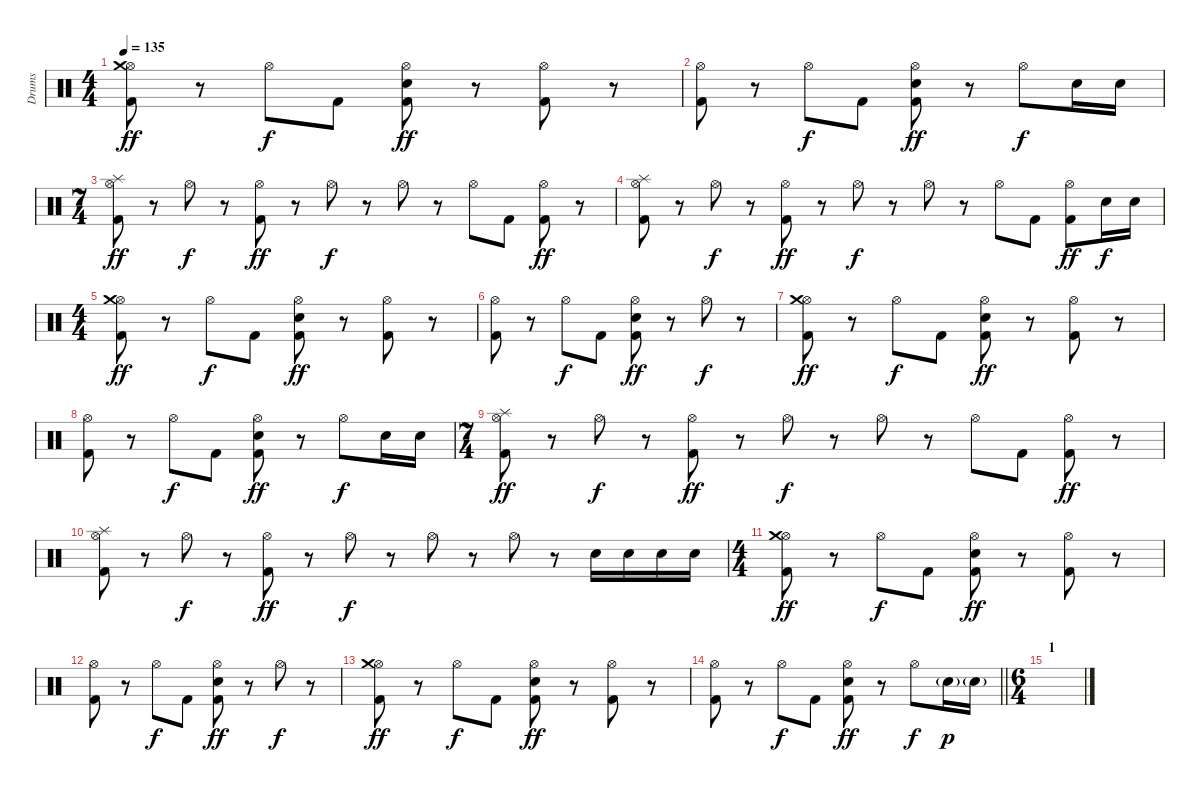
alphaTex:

\track ("Drums" "Drums") {instrument percussion}
\staff {score}
\articulation defaults
\ts (4 4)
\tempo 135
\clef neutral
\ks c
("Hi-Hat (open)" "Crash medium (hit)" "Kick (hit) 2").8{dy ff} r.8 "Hi-Hat (open)".8{dy f} "Kick (hit) 2".8 ("Hi-Hat (open)" "Snare (hit) 2" "Kick (hit) 2").8{dy ff} r.8 ("Hi-Hat (open)" "Kick (hit) 2").8 r.8 |
("Hi-Hat (open)" "Kick (hit) 2").8 r.8 "Hi-Hat (open)".8{dy f} "Kick (hit) 2".8 ("Hi-Hat (open)" "Snare (hit) 2" "Kick (hit) 2").8{dy ff} r.8 "Hi-Hat (open)".8{dy f} "Snare (hit) 2".16 "Snare (hit) 2".16 |
\ts (7 4)
("Hi-Hat (open)" "Splash (hit)" "Kick (hit) 2").8{dy ff} r.8 "Hi-Hat (open)".8{dy f} r.8 ("Hi-Hat (open)" "Kick (hit) 2").8{dy ff} r.8 "Hi-Hat (open)".8{dy f} r.8 "Hi-Hat (open)".8 r.8 "Hi-Hat (open)".8 "Kick (hit) 2".8 ("Hi-Hat (open)" "Kick (hit) 2").8{dy ff} r.8 |
("Hi-Hat (open)" "Splash (hit)" "Kick (hit) 2").8 r.8 "Hi-Hat (open)".8{dy f} r.8 ("Hi-Hat (open)" "Kick (hit) 2").8{dy ff} r.8 "Hi-Hat (open)".8{dy f} r.8 "Hi-Hat (open)".8 r.8 "Hi-Hat (open)".8 "Kick (hit) 2".8 ("Hi-Hat (open)" "Kick (hit) 2").8{dy ff} "Snare (hit) 2".16{dy f} "Snare (hit) 2".16 |
\ts (4 4)
("Hi-Hat (open)" "Crash medium (hit)" "Kick (hit) 2").8{dy ff} r.8 "Hi-Hat (open)".8{dy f} "Kick (hit) 2".8 ("Hi-Hat (open)" "Snare (hit) 2" "Kick (hit) 2").8{dy ff} r.8 ("Hi-Hat (open)" "Kick (hit) 2").8 r.8 |
("Hi-Hat (open)" "Kick (hit) 2").8 r.8 "Hi-Hat (open)".8{dy f} "Kick (hit) 2".8 ("Hi-Hat (open)" "Snare (hit) 2" "Kick (hit) 2").8{dy ff} r.8 "Hi-Hat (open)".8{dy f} r.8 |
("Hi-Hat (open)" "Crash medium (hit)" "Kick (hit) 2").8{dy ff} r.8 "Hi-Hat (open)".8{dy f} "Kick (hit) 2".8 ("Hi-Hat (open)" "Snare (hit) 2" "Kick (hit) 2").8{dy ff} r.8 ("Hi-Hat (open)" "Kick (hit) 2").8 r.8 |
("Hi-Hat (open)" "Kick (hit) 2").8 r.8 "Hi-Hat (open)".8{dy f} "Kick (hit) 2".8 ("Hi-Hat (open)" "Snare (hit) 2" "Kick (hit) 2").8{dy ff} r.8 "Hi-Hat (open)".8{dy f} "Snare (hit) 2".16 "Snare (hit) 2".16 |
\ts (7 4)
("Hi-Hat (open)" "Splash (hit)" "Kick (hit) 2").8{dy ff} r.8 "Hi-Hat (open)".8{dy f} r.8 ("Hi-Hat (open)" "Kick (hit) 2").8{dy ff} r.8 "Hi-Hat (open)".8{dy f} r.8 "Hi-Hat (open)".8 r.8 "Hi-Hat (open)".8 "Kick (hit) 2".8 ("Hi-Hat (open)" "Kick (hit) 2").8{dy ff} r.8 |
("Hi-Hat (open)" "Splash (hit)" "Kick (hit) 2").8 r.8 "Hi-Hat (open)".8{dy f} r.8 ("Hi-Hat (open)" "Kick (hit) 2").8{dy ff} r.8 "Hi-Hat (open)".8{dy f} r.8 "Hi-Hat (open)".8 r.8 "Hi-Hat (open)".8 r.8 "Snare (hit) 2".16 "Snare (hit) 2".16 "Snare (hit) 2".16 "Snare (hit) 2".16 |
\ts (4 4)
("Hi-Hat (open)" "Crash medium (hit)" "Kick (hit) 2").8{dy ff} r.8 "Hi-Hat (open)".8{dy f} "Kick (hit) 2".8 ("Hi-Hat (open)" "Snare (hit) 2" "Kick (hit) 2").8{dy ff} r.8 ("Hi-Hat (open)" "Kick (hit) 2").8 r.8 |
("Hi-Hat (open)" "Kick (hit) 2").8 r.8 "Hi-Hat (open)".8{dy f} "Kick (hit) 2".8 ("Hi-Hat (open)" "Snare (hit) 2" "Kick (hit) 2").8{dy ff} r.8 "Hi-Hat (open)".8{dy f} r.8 |
("Hi-Hat (open)" "Crash medium (hit)" "Kick (hit) 2").8{dy ff} r.8 "Hi-Hat (open)".8{dy f} "Kick (hit) 2".8 ("Hi-Hat (open)" "Snare (hit) 2" "Kick (hit) 2").8{dy ff} r.8 ("Hi-Hat (open)" "Kick (hit) 2").8 r.8 |
\barLineRight lightlight
("Hi-Hat (open)" "Kick (hit) 2").8 r.8 "Hi-Hat (open)".8{dy f} "Kick (hit) 2".8 ("Hi-Hat (open)" "Snare (hit) 2" "Kick (hit) 2").8{dy ff} r.8 "Hi-Hat (open)".8{dy f} "Snare (hit) 2"{g}.16{dy p} "Snare (hit) 2"{g}.16 |
\ts (6 4)
\section ("" "1")
